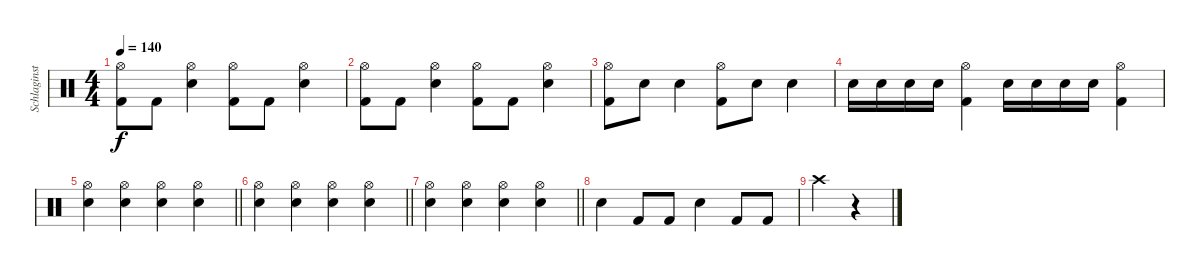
\track ("Schlaginstrumente - Auswahl" "Schlaginst") {instrument percussion}
\staff {score}
\articulation defaults
\ts (4 4)
\tempo 140
\clef neutral
\ks c
("Hi-Hat (open)" "Kick (hit) 2").8{dy f} "Kick (hit) 2".8 ("Hi-Hat (open)" "Snare (hit) 2").4 ("Hi-Hat (open)" "Kick (hit) 2").8 "Kick (hit) 2".8 ("Hi-Hat (open)" "Snare (hit) 2").4 |
("Hi-Hat (open)" "Kick (hit) 2").8 "Kick (hit) 2".8 ("Hi-Hat (open)" "Snare (hit) 2").4 ("Hi-Hat (open)" "Kick (hit) 2").8 "Kick (hit) 2".8 ("Hi-Hat (open)" "Snare (hit) 2").4 |
("Hi-Hat (open)" "Kick (hit) 2").8 "Snare (hit) 2".8 "Snare (hit) 2".4 ("Hi-Hat (open)" "Kick (hit) 2").8 "Snare (hit) 2".8 "Snare (hit) 2".4 |
"Snare (hit) 2".16 "Snare (hit) 2".16 "Snare (hit) 2".16 "Snare (hit) 2".16 ("Hi-Hat (open)" "Kick (hit) 2").4 "Snare (hit) 2".16 "Snare (hit) 2".16 "Snare (hit) 2".16 "Snare (hit) 2".16 ("Hi-Hat (open)" "Kick (hit) 2").4 |
\barLineRight lightlight
("Hi-Hat (open)" "Snare (hit) 2").4 ("Hi-Hat (open)" "Snare (hit) 2").4 ("Hi-Hat (open)" "Snare (hit) 2").4 ("Hi-Hat (open)" "Snare (hit) 2").4 |
\barLineRight lightlight
("Hi-Hat (open)" "Snare (hit) 2").4 ("Hi-Hat (open)" "Snare (hit) 2").4 ("Hi-Hat (open)" "Snare (hit) 2").4 ("Hi-Hat (open)" "Snare (hit) 2").4 |
\barLineRight lightlight
("Hi-Hat (open)" "Snare (hit) 2").4 ("Hi-Hat (open)" "Snare (hit) 2").4 ("Hi-Hat (open)" "Snare (hit) 2").4 ("Hi-Hat (open)" "Snare (hit) 2").4 |
"Snare (hit) 2".4 "Kick (hit) 2".8 "Kick (hit) 2".8 "Snare (hit) 2".4 "Kick (hit) 2".8 "Kick (hit) 2".8 |
"Crash high (hit)".4 r.4
